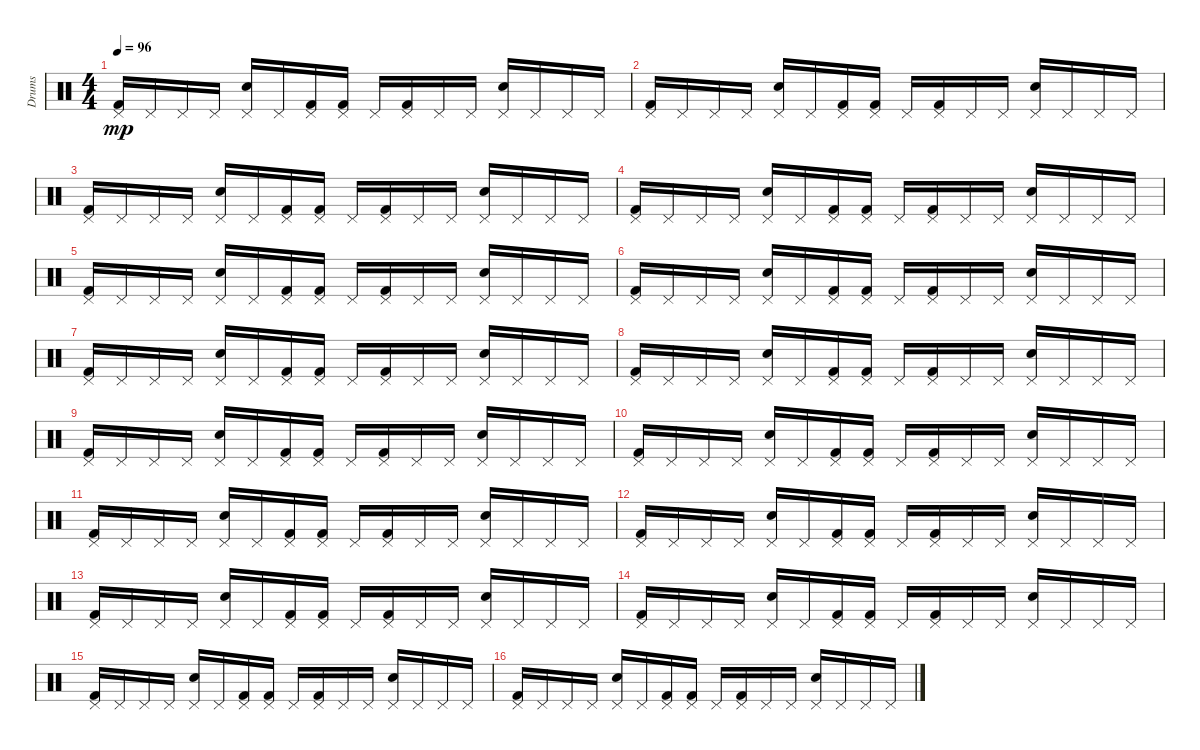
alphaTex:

\track ("Drums" "Drums") {instrument percussion}
\staff {score}
\articulation defaults
\ts (4 4)
\tempo 96
\clef neutral
\ks c
("Pedal Hi-Hat (hit)" "Kick (hit) 2").16{dy mp} "Pedal Hi-Hat (hit)".16 "Pedal Hi-Hat (hit)".16 "Pedal Hi-Hat (hit)".16 ("Electric Snare (hit)" "Pedal Hi-Hat (hit)").16 "Pedal Hi-Hat (hit)".16 ("Pedal Hi-Hat (hit)" "Kick (hit) 2").16 ("Pedal Hi-Hat (hit)" "Kick (hit) 2").16 "Pedal Hi-Hat (hit)".16 ("Pedal Hi-Hat (hit)" "Kick (hit) 2").16 "Pedal Hi-Hat (hit)".16 "Pedal Hi-Hat (hit)".16 ("Electric Snare (hit)" "Pedal Hi-Hat (hit)").16 "Pedal Hi-Hat (hit)".16 "Pedal Hi-Hat (hit)".16 "Pedal Hi-Hat (hit)".16 |
("Pedal Hi-Hat (hit)" "Kick (hit) 2").16 "Pedal Hi-Hat (hit)".16 "Pedal Hi-Hat (hit)".16 "Pedal Hi-Hat (hit)".16 ("Electric Snare (hit)" "Pedal Hi-Hat (hit)").16 "Pedal Hi-Hat (hit)".16 ("Pedal Hi-Hat (hit)" "Kick (hit) 2").16 ("Pedal Hi-Hat (hit)" "Kick (hit) 2").16 "Pedal Hi-Hat (hit)".16 ("Pedal Hi-Hat (hit)" "Kick (hit) 2").16 "Pedal Hi-Hat (hit)".16 "Pedal Hi-Hat (hit)".16 ("Electric Snare (hit)" "Pedal Hi-Hat (hit)").16 "Pedal Hi-Hat (hit)".16 "Pedal Hi-Hat (hit)".16 "Pedal Hi-Hat (hit)".16 |
("Pedal Hi-Hat (hit)" "Kick (hit) 2").16 "Pedal Hi-Hat (hit)".16 "Pedal Hi-Hat (hit)".16 "Pedal Hi-Hat (hit)".16 ("Electric Snare (hit)" "Pedal Hi-Hat (hit)").16 "Pedal Hi-Hat (hit)".16 ("Pedal Hi-Hat (hit)" "Kick (hit) 2").16 ("Pedal Hi-Hat (hit)" "Kick (hit) 2").16 "Pedal Hi-Hat (hit)".16 ("Pedal Hi-Hat (hit)" "Kick (hit) 2").16 "Pedal Hi-Hat (hit)".16 "Pedal Hi-Hat (hit)".16 ("Electric Snare (hit)" "Pedal Hi-Hat (hit)").16 "Pedal Hi-Hat (hit)".16 "Pedal Hi-Hat (hit)".16 "Pedal Hi-Hat (hit)".16 |
("Pedal Hi-Hat (hit)" "Kick (hit) 2").16 "Pedal Hi-Hat (hit)".16 "Pedal Hi-Hat (hit)".16 "Pedal Hi-Hat (hit)".16 ("Electric Snare (hit)" "Pedal Hi-Hat (hit)").16 "Pedal Hi-Hat (hit)".16 ("Pedal Hi-Hat (hit)" "Kick (hit) 2").16 ("Pedal Hi-Hat (hit)" "Kick (hit) 2").16 "Pedal Hi-Hat (hit)".16 ("Pedal Hi-Hat (hit)" "Kick (hit) 2").16 "Pedal Hi-Hat (hit)".16 "Pedal Hi-Hat (hit)".16 ("Electric Snare (hit)" "Pedal Hi-Hat (hit)").16 "Pedal Hi-Hat (hit)".16 "Pedal Hi-Hat (hit)".16 "Pedal Hi-Hat (hit)".16 |
("Pedal Hi-Hat (hit)" "Kick (hit) 2").16 "Pedal Hi-Hat (hit)".16 "Pedal Hi-Hat (hit)".16 "Pedal Hi-Hat (hit)".16 ("Electric Snare (hit)" "Pedal Hi-Hat (hit)").16 "Pedal Hi-Hat (hit)".16 ("Pedal Hi-Hat (hit)" "Kick (hit) 2").16 ("Pedal Hi-Hat (hit)" "Kick (hit) 2").16 "Pedal Hi-Hat (hit)".16 ("Pedal Hi-Hat (hit)" "Kick (hit) 2").16 "Pedal Hi-Hat (hit)".16 "Pedal Hi-Hat (hit)".16 ("Electric Snare (hit)" "Pedal Hi-Hat (hit)").16 "Pedal Hi-Hat (hit)".16 "Pedal Hi-Hat (hit)".16 "Pedal Hi-Hat (hit)".16 |
("Pedal Hi-Hat (hit)" "Kick (hit) 2").16 "Pedal Hi-Hat (hit)".16 "Pedal Hi-Hat (hit)".16 "Pedal Hi-Hat (hit)".16 ("Electric Snare (hit)" "Pedal Hi-Hat (hit)").16 "Pedal Hi-Hat (hit)".16 ("Pedal Hi-Hat (hit)" "Kick (hit) 2").16 ("Pedal Hi-Hat (hit)" "Kick (hit) 2").16 "Pedal Hi-Hat (hit)".16 ("Pedal Hi-Hat (hit)" "Kick (hit) 2").16 "Pedal Hi-Hat (hit)".16 "Pedal Hi-Hat (hit)".16 ("Electric Snare (hit)" "Pedal Hi-Hat (hit)").16 "Pedal Hi-Hat (hit)".16 "Pedal Hi-Hat (hit)".16 "Pedal Hi-Hat (hit)".16 |
("Pedal Hi-Hat (hit)" "Kick (hit) 2").16 "Pedal Hi-Hat (hit)".16 "Pedal Hi-Hat (hit)".16 "Pedal Hi-Hat (hit)".16 ("Electric Snare (hit)" "Pedal Hi-Hat (hit)").16 "Pedal Hi-Hat (hit)".16 ("Pedal Hi-Hat (hit)" "Kick (hit) 2").16 ("Pedal Hi-Hat (hit)" "Kick (hit) 2").16 "Pedal Hi-Hat (hit)".16 ("Pedal Hi-Hat (hit)" "Kick (hit) 2").16 "Pedal Hi-Hat (hit)".16 "Pedal Hi-Hat (hit)".16 ("Electric Snare (hit)" "Pedal Hi-Hat (hit)").16 "Pedal Hi-Hat (hit)".16 "Pedal Hi-Hat (hit)".16 "Pedal Hi-Hat (hit)".16 |
("Pedal Hi-Hat (hit)" "Kick (hit) 2").16 "Pedal Hi-Hat (hit)".16 "Pedal Hi-Hat (hit)".16 "Pedal Hi-Hat (hit)".16 ("Electric Snare (hit)" "Pedal Hi-Hat (hit)").16 "Pedal Hi-Hat (hit)".16 ("Pedal Hi-Hat (hit)" "Kick (hit) 2").16 ("Pedal Hi-Hat (hit)" "Kick (hit) 2").16 "Pedal Hi-Hat (hit)".16 ("Pedal Hi-Hat (hit)" "Kick (hit) 2").16 "Pedal Hi-Hat (hit)".16 "Pedal Hi-Hat (hit)".16 ("Electric Snare (hit)" "Pedal Hi-Hat (hit)").16 "Pedal Hi-Hat (hit)".16 "Pedal Hi-Hat (hit)".16 "Pedal Hi-Hat (hit)".16 |
("Pedal Hi-Hat (hit)" "Kick (hit) 2").16 "Pedal Hi-Hat (hit)".16 "Pedal Hi-Hat (hit)".16 "Pedal Hi-Hat (hit)".16 ("Electric Snare (hit)" "Pedal Hi-Hat (hit)").16 "Pedal Hi-Hat (hit)".16 ("Pedal Hi-Hat (hit)" "Kick (hit) 2").16 ("Pedal Hi-Hat (hit)" "Kick (hit) 2").16 "Pedal Hi-Hat (hit)".16 ("Pedal Hi-Hat (hit)" "Kick (hit) 2").16 "Pedal Hi-Hat (hit)".16 "Pedal Hi-Hat (hit)".16 ("Electric Snare (hit)" "Pedal Hi-Hat (hit)").16 "Pedal Hi-Hat (hit)".16 "Pedal Hi-Hat (hit)".16 "Pedal Hi-Hat (hit)".16 |
("Pedal Hi-Hat (hit)" "Kick (hit) 2").16 "Pedal Hi-Hat (hit)".16 "Pedal Hi-Hat (hit)".16 "Pedal Hi-Hat (hit)".16 ("Electric Snare (hit)" "Pedal Hi-Hat (hit)").16 "Pedal Hi-Hat (hit)".16 ("Pedal Hi-Hat (hit)" "Kick (hit) 2").16 ("Pedal Hi-Hat (hit)" "Kick (hit) 2").16 "Pedal Hi-Hat (hit)".16 ("Pedal Hi-Hat (hit)" "Kick (hit) 2").16 "Pedal Hi-Hat (hit)".16 "Pedal Hi-Hat (hit)".16 ("Electric Snare (hit)" "Pedal Hi-Hat (hit)").16 "Pedal Hi-Hat (hit)".16 "Pedal Hi-Hat (hit)".16 "Pedal Hi-Hat (hit)".16 |
("Pedal Hi-Hat (hit)" "Kick (hit) 2").16 "Pedal Hi-Hat (hit)".16 "Pedal Hi-Hat (hit)".16 "Pedal Hi-Hat (hit)".16 ("Electric Snare (hit)" "Pedal Hi-Hat (hit)").16 "Pedal Hi-Hat (hit)".16 ("Pedal Hi-Hat (hit)" "Kick (hit) 2").16 ("Pedal Hi-Hat (hit)" "Kick (hit) 2").16 "Pedal Hi-Hat (hit)".16 ("Pedal Hi-Hat (hit)" "Kick (hit) 2").16 "Pedal Hi-Hat (hit)".16 "Pedal Hi-Hat (hit)".16 ("Electric Snare (hit)" "Pedal Hi-Hat (hit)").16 "Pedal Hi-Hat (hit)".16 "Pedal Hi-Hat (hit)".16 "Pedal Hi-Hat (hit)".16 |
("Pedal Hi-Hat (hit)" "Kick (hit) 2").16 "Pedal Hi-Hat (hit)".16 "Pedal Hi-Hat (hit)".16 "Pedal Hi-Hat (hit)".16 ("Electric Snare (hit)" "Pedal Hi-Hat (hit)").16 "Pedal Hi-Hat (hit)".16 ("Pedal Hi-Hat (hit)" "Kick (hit) 2").16 ("Pedal Hi-Hat (hit)" "Kick (hit) 2").16 "Pedal Hi-Hat (hit)".16 ("Pedal Hi-Hat (hit)" "Kick (hit) 2").16 "Pedal Hi-Hat (hit)".16 "Pedal Hi-Hat (hit)".16 ("Electric Snare (hit)" "Pedal Hi-Hat (hit)").16 "Pedal Hi-Hat (hit)".16 "Pedal Hi-Hat (hit)".16 "Pedal Hi-Hat (hit)".16 |
("Pedal Hi-Hat (hit)" "Kick (hit) 2").16 "Pedal Hi-Hat (hit)".16 "Pedal Hi-Hat (hit)".16 "Pedal Hi-Hat (hit)".16 ("Electric Snare (hit)" "Pedal Hi-Hat (hit)").16 "Pedal Hi-Hat (hit)".16 ("Pedal Hi-Hat (hit)" "Kick (hit) 2").16 ("Pedal Hi-Hat (hit)" "Kick (hit) 2").16 "Pedal Hi-Hat (hit)".16 ("Pedal Hi-Hat (hit)" "Kick (hit) 2").16 "Pedal Hi-Hat (hit)".16 "Pedal Hi-Hat (hit)".16 ("Electric Snare (hit)" "Pedal Hi-Hat (hit)").16 "Pedal Hi-Hat (hit)".16 "Pedal Hi-Hat (hit)".16 "Pedal Hi-Hat (hit)".16 |
("Pedal Hi-Hat (hit)" "Kick (hit) 2").16 "Pedal Hi-Hat (hit)".16 "Pedal Hi-Hat (hit)".16 "Pedal Hi-Hat (hit)".16 ("Electric Snare (hit)" "Pedal Hi-Hat (hit)").16 "Pedal Hi-Hat (hit)".16 ("Pedal Hi-Hat (hit)" "Kick (hit) 2").16 ("Pedal Hi-Hat (hit)" "Kick (hit) 2").16 "Pedal Hi-Hat (hit)".16 ("Pedal Hi-Hat (hit)" "Kick (hit) 2").16 "Pedal Hi-Hat (hit)".16 "Pedal Hi-Hat (hit)".16 ("Electric Snare (hit)" "Pedal Hi-Hat (hit)").16 "Pedal Hi-Hat (hit)".16 "Pedal Hi-Hat (hit)".16 "Pedal Hi-Hat (hit)".16 |
("Pedal Hi-Hat (hit)" "Kick (hit) 2").16 "Pedal Hi-Hat (hit)".16 "Pedal Hi-Hat (hit)".16 "Pedal Hi-Hat (hit)".16 ("Electric Snare (hit)" "Pedal Hi-Hat (hit)").16 "Pedal Hi-Hat (hit)".16 ("Pedal Hi-Hat (hit)" "Kick (hit) 2").16 ("Pedal Hi-Hat (hit)" "Kick (hit) 2").16 "Pedal Hi-Hat (hit)".16 ("Pedal Hi-Hat (hit)" "Kick (hit) 2").16 "Pedal Hi-Hat (hit)".16 "Pedal Hi-Hat (hit)".16 ("Electric Snare (hit)" "Pedal Hi-Hat (hit)").16 "Pedal Hi-Hat (hit)".16 "Pedal Hi-Hat (hit)".16 "Pedal Hi-Hat (hit)".16 |
("Pedal Hi-Hat (hit)" "Kick (hit) 2").16 "Pedal Hi-Hat (hit)".16 "Pedal Hi-Hat (hit)".16 "Pedal Hi-Hat (hit)".16 ("Electric Snare (hit)" "Pedal Hi-Hat (hit)").16 "Pedal Hi-Hat (hit)".16 ("Pedal Hi-Hat (hit)" "Kick (hit) 2").16 ("Pedal Hi-Hat (hit)" "Kick (hit) 2").16 "Pedal Hi-Hat (hit)".16 ("Pedal Hi-Hat (hit)" "Kick (hit) 2").16 "Pedal Hi-Hat (hit)".16 "Pedal Hi-Hat (hit)".16 ("Electric Snare (hit)" "Pedal Hi-Hat (hit)").16 "Pedal Hi-Hat (hit)".16 "Pedal Hi-Hat (hit)".16 "Pedal Hi-Hat (hit)".16
